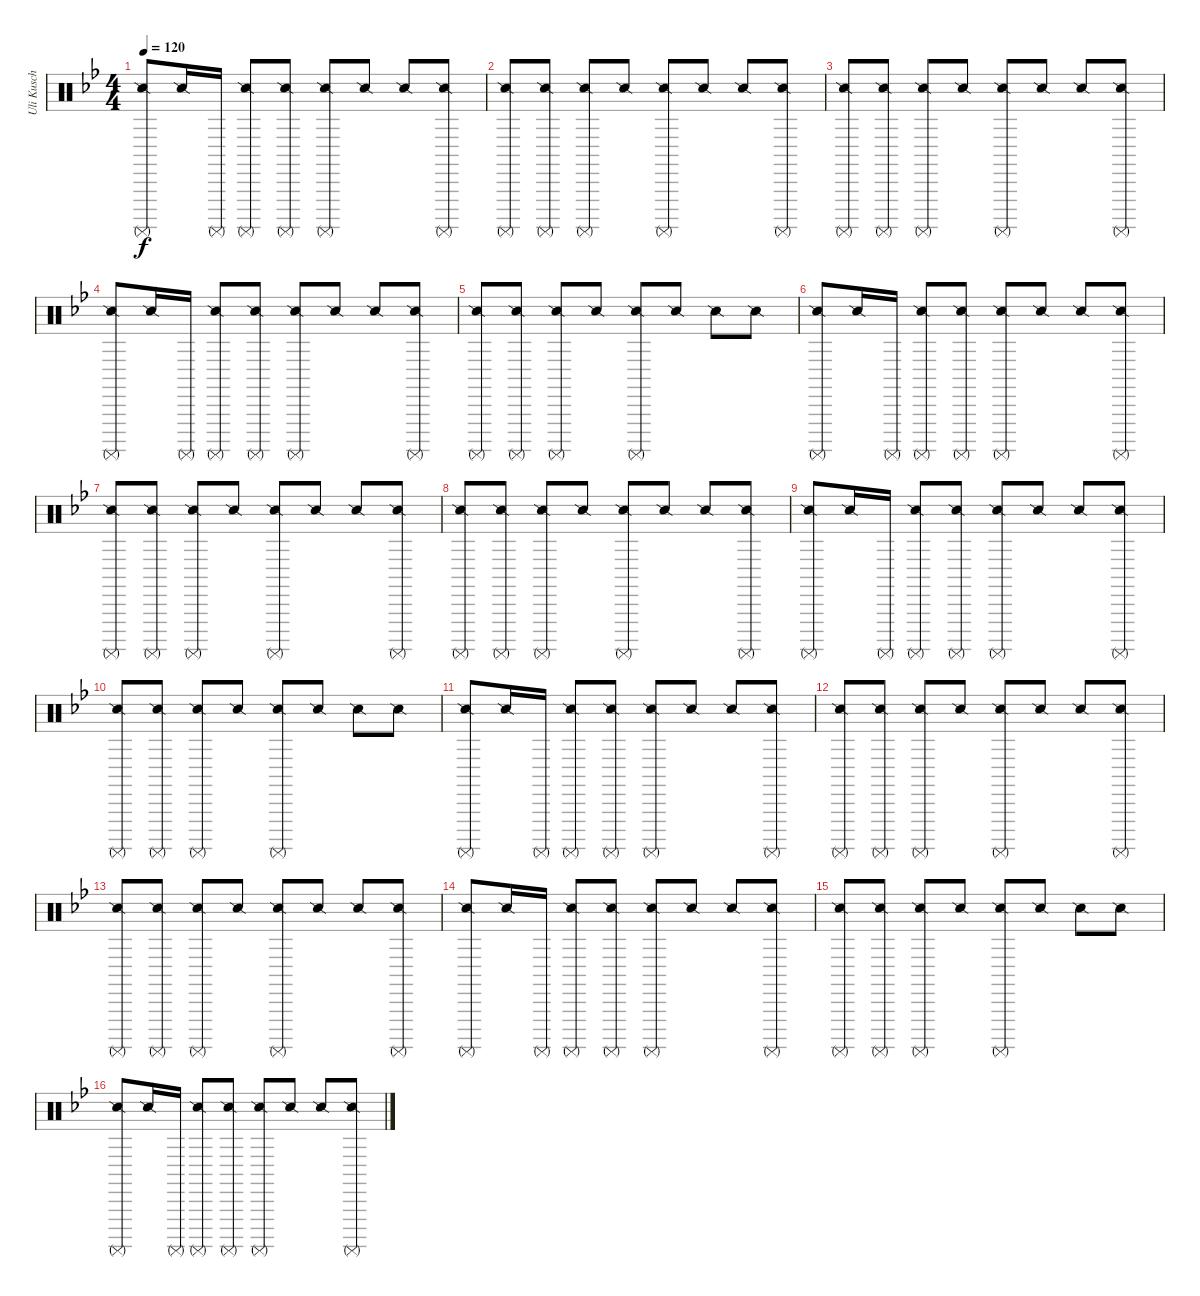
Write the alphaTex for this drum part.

\track ("Uli Kusch" "Uli Kusch") {instrument percussion}
\staff {score}
\articulation defaults
\ts (4 4)
\tempo 120
\clef neutral
\ks gminor
("Surdo (mute)" "Snare (side stick) 2").8{dy f} "Snare (side stick) 2".16 "Surdo (mute)".16 ("Surdo (mute)" "Snare (side stick) 2").8 ("Surdo (mute)" "Snare (side stick) 2").8 ("Surdo (mute)" "Snare (side stick) 2").8 "Snare (side stick) 2".8 "Snare (side stick) 2".8 ("Surdo (mute)" "Snare (side stick) 2").8 |
("Snare (side stick) 2" "Surdo (mute)").8 ("Snare (side stick) 2" "Surdo (mute)").8 ("Snare (side stick) 2" "Surdo (mute)").8 "Snare (side stick) 2".8 ("Snare (side stick) 2" "Surdo (mute)").8 "Snare (side stick) 2".8 "Snare (side stick) 2".8 ("Snare (side stick) 2" "Surdo (mute)").8 |
("Snare (side stick) 2" "Surdo (mute)").8 ("Snare (side stick) 2" "Surdo (mute)").8 ("Snare (side stick) 2" "Surdo (mute)").8 "Snare (side stick) 2".8 ("Snare (side stick) 2" "Surdo (mute)").8 "Snare (side stick) 2".8 "Snare (side stick) 2".8 ("Snare (side stick) 2" "Surdo (mute)").8 |
("Surdo (mute)" "Snare (side stick) 2").8 "Snare (side stick) 2".16 "Surdo (mute)".16 ("Surdo (mute)" "Snare (side stick) 2").8 ("Surdo (mute)" "Snare (side stick) 2").8 ("Surdo (mute)" "Snare (side stick) 2").8 "Snare (side stick) 2".8 "Snare (side stick) 2".8 ("Surdo (mute)" "Snare (side stick) 2").8 |
("Snare (side stick) 2" "Surdo (mute)").8 ("Snare (side stick) 2" "Surdo (mute)").8 ("Snare (side stick) 2" "Surdo (mute)").8 "Snare (side stick) 2".8 ("Snare (side stick) 2" "Surdo (mute)").8 "Snare (side stick) 2".8 "Snare (side stick) 2".8 "Snare (side stick) 2".8 |
("Surdo (mute)" "Snare (side stick) 2").8 "Snare (side stick) 2".16 "Surdo (mute)".16 ("Surdo (mute)" "Snare (side stick) 2").8 ("Surdo (mute)" "Snare (side stick) 2").8 ("Surdo (mute)" "Snare (side stick) 2").8 "Snare (side stick) 2".8 "Snare (side stick) 2".8 ("Surdo (mute)" "Snare (side stick) 2").8 |
("Snare (side stick) 2" "Surdo (mute)").8 ("Snare (side stick) 2" "Surdo (mute)").8 ("Snare (side stick) 2" "Surdo (mute)").8 "Snare (side stick) 2".8 ("Snare (side stick) 2" "Surdo (mute)").8 "Snare (side stick) 2".8 "Snare (side stick) 2".8 ("Snare (side stick) 2" "Surdo (mute)").8 |
("Snare (side stick) 2" "Surdo (mute)").8 ("Snare (side stick) 2" "Surdo (mute)").8 ("Snare (side stick) 2" "Surdo (mute)").8 "Snare (side stick) 2".8 ("Snare (side stick) 2" "Surdo (mute)").8 "Snare (side stick) 2".8 "Snare (side stick) 2".8 ("Snare (side stick) 2" "Surdo (mute)").8 |
("Surdo (mute)" "Snare (side stick) 2").8 "Snare (side stick) 2".16 "Surdo (mute)".16 ("Surdo (mute)" "Snare (side stick) 2").8 ("Surdo (mute)" "Snare (side stick) 2").8 ("Surdo (mute)" "Snare (side stick) 2").8 "Snare (side stick) 2".8 "Snare (side stick) 2".8 ("Surdo (mute)" "Snare (side stick) 2").8 |
("Snare (side stick) 2" "Surdo (mute)").8 ("Snare (side stick) 2" "Surdo (mute)").8 ("Snare (side stick) 2" "Surdo (mute)").8 "Snare (side stick) 2".8 ("Snare (side stick) 2" "Surdo (mute)").8 "Snare (side stick) 2".8 "Snare (side stick) 2".8 "Snare (side stick) 2".8 |
("Surdo (mute)" "Snare (side stick) 2").8 "Snare (side stick) 2".16 "Surdo (mute)".16 ("Surdo (mute)" "Snare (side stick) 2").8 ("Surdo (mute)" "Snare (side stick) 2").8 ("Surdo (mute)" "Snare (side stick) 2").8 "Snare (side stick) 2".8 "Snare (side stick) 2".8 ("Surdo (mute)" "Snare (side stick) 2").8 |
("Snare (side stick) 2" "Surdo (mute)").8 ("Snare (side stick) 2" "Surdo (mute)").8 ("Snare (side stick) 2" "Surdo (mute)").8 "Snare (side stick) 2".8 ("Snare (side stick) 2" "Surdo (mute)").8 "Snare (side stick) 2".8 "Snare (side stick) 2".8 ("Snare (side stick) 2" "Surdo (mute)").8 |
("Snare (side stick) 2" "Surdo (mute)").8 ("Snare (side stick) 2" "Surdo (mute)").8 ("Snare (side stick) 2" "Surdo (mute)").8 "Snare (side stick) 2".8 ("Snare (side stick) 2" "Surdo (mute)").8 "Snare (side stick) 2".8 "Snare (side stick) 2".8 ("Snare (side stick) 2" "Surdo (mute)").8 |
("Surdo (mute)" "Snare (side stick) 2").8 "Snare (side stick) 2".16 "Surdo (mute)".16 ("Surdo (mute)" "Snare (side stick) 2").8 ("Surdo (mute)" "Snare (side stick) 2").8 ("Surdo (mute)" "Snare (side stick) 2").8 "Snare (side stick) 2".8 "Snare (side stick) 2".8 ("Surdo (mute)" "Snare (side stick) 2").8 |
("Snare (side stick) 2" "Surdo (mute)").8 ("Snare (side stick) 2" "Surdo (mute)").8 ("Snare (side stick) 2" "Surdo (mute)").8 "Snare (side stick) 2".8 ("Snare (side stick) 2" "Surdo (mute)").8 "Snare (side stick) 2".8 "Snare (side stick) 2".8 "Snare (side stick) 2".8 |
("Surdo (mute)" "Snare (side stick) 2").8 "Snare (side stick) 2".16 "Surdo (mute)".16 ("Surdo (mute)" "Snare (side stick) 2").8 ("Surdo (mute)" "Snare (side stick) 2").8 ("Surdo (mute)" "Snare (side stick) 2").8 "Snare (side stick) 2".8 "Snare (side stick) 2".8 ("Surdo (mute)" "Snare (side stick) 2").8
